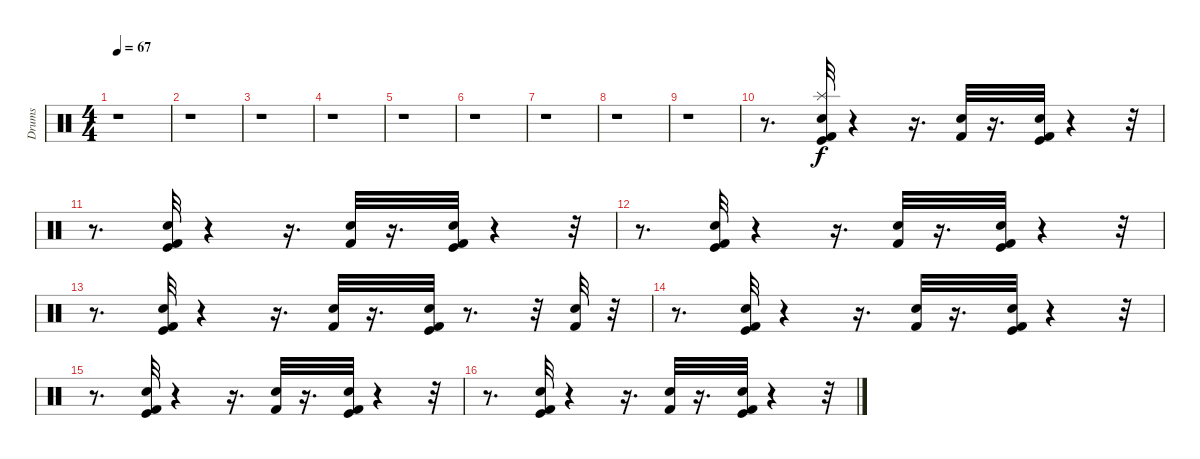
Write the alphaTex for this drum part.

\track ("Drums" "Drums") {instrument percussion}
\staff {score}
\articulation defaults
\ts (4 4)
\tempo 67
\clef neutral
\ks c
r.1{dy f} |
r.1 |
r.1 |
r.1 |
r.1 |
r.1 |
r.1 |
r.1 |
r.1 |
r.8{d} ("Snare (hit) 2" "Splash (hit)" "Kick (hit) 2" "Kick (hit)").32 r.4 r.16{d} ("Snare (hit) 2" "Kick (hit) 2").32 r.16{d} ("Snare (hit) 2" "Kick (hit)" "Kick (hit) 2").32 r.4 r.32 |
r.8{d} ("Snare (hit) 2" "Kick (hit) 2" "Kick (hit)").32 r.4 r.16{d} ("Snare (hit) 2" "Kick (hit) 2").32 r.16{d} ("Snare (hit) 2" "Kick (hit) 2" "Kick (hit)").32 r.4 r.32 |
r.8{d} ("Snare (hit) 2" "Kick (hit)" "Kick (hit) 2").32 r.4 r.16{d} ("Kick (hit) 2" "Snare (hit) 2").32 r.16{d} ("Snare (hit) 2" "Kick (hit)" "Kick (hit) 2").32 r.4 r.32 |
r.8{d} ("Snare (hit) 2" "Kick (hit) 2" "Kick (hit)").32 r.4 r.16{d} ("Snare (hit) 2" "Kick (hit) 2").32 r.16{d} ("Snare (hit) 2" "Kick (hit)" "Kick (hit) 2").32 r.8{d} r.32 ("Kick (hit) 2" "Snare (hit) 2").32 r.32 |
r.8{d} ("Snare (hit) 2" "Kick (hit) 2" "Kick (hit)").32 r.4 r.16{d} ("Snare (hit) 2" "Kick (hit) 2").32 r.16{d} ("Snare (hit) 2" "Kick (hit)" "Kick (hit) 2").32 r.4 r.32 |
r.8{d} ("Snare (hit) 2" "Kick (hit)" "Kick (hit) 2").32 r.4 r.16{d} ("Snare (hit) 2" "Kick (hit) 2").32 r.16{d} ("Snare (hit) 2" "Kick (hit)" "Kick (hit) 2").32 r.4 r.32 |
r.8{d} ("Snare (hit) 2" "Kick (hit)" "Kick (hit) 2").32 r.4 r.16{d} ("Snare (hit) 2" "Kick (hit) 2").32 r.16{d} ("Snare (hit) 2" "Kick (hit)" "Kick (hit) 2").32 r.4 r.32
